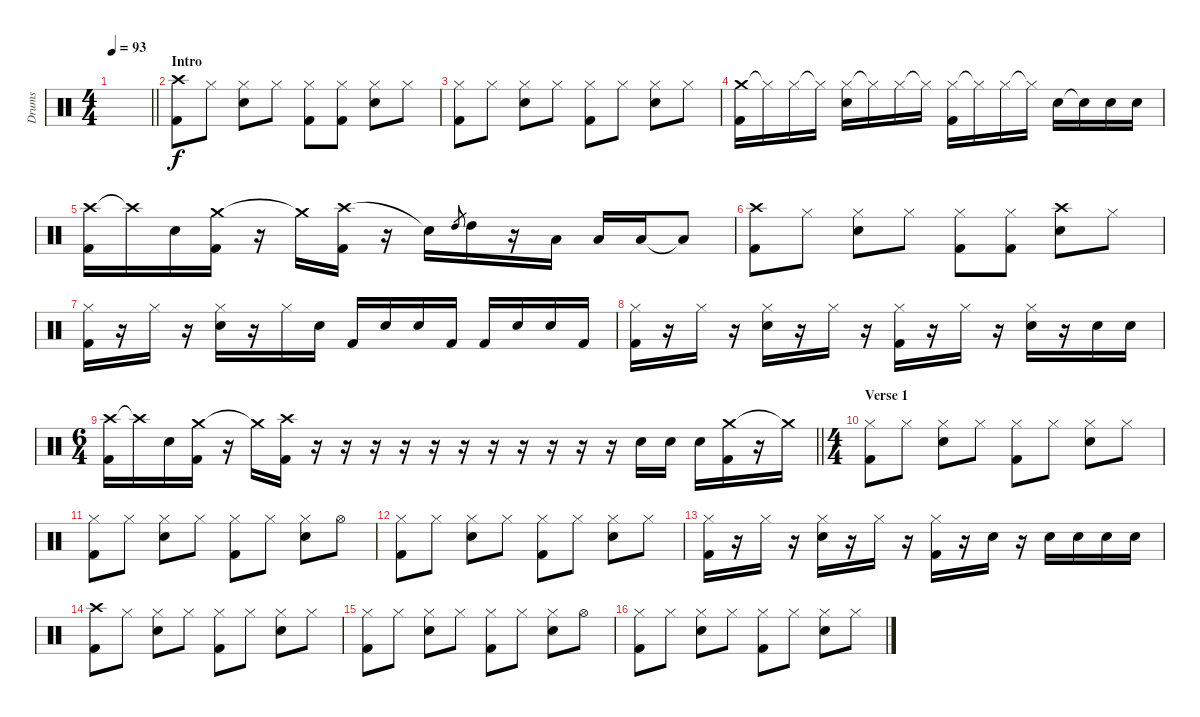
\track ("Drums" "Drums") {instrument percussion}
\staff {score}
\articulation defaults
\ts (4 4)
\tempo 93
\clef neutral
\barLineRight lightlight
\ks c
|
\section ("" "Intro")
("Crash high (hit)" "Kick (hit) 2").8 "Hi-Hat (closed)".8 ("Hi-Hat (closed)" "Snare (hit) 2").8 "Hi-Hat (closed)".8 ("Hi-Hat (closed)" "Kick (hit) 2").8 ("Hi-Hat (closed)" "Kick (hit) 2").8 ("Hi-Hat (closed)" "Snare (hit) 2").8 "Hi-Hat (closed)".8 |
("Hi-Hat (closed)" "Kick (hit) 2").8 "Hi-Hat (closed)".8 ("Hi-Hat (closed)" "Snare (hit) 2").8 "Hi-Hat (closed)".8 ("Hi-Hat (closed)" "Kick (hit) 2").8 "Hi-Hat (closed)".8 ("Hi-Hat (closed)" "Snare (hit) 2").8 "Hi-Hat (closed)".8 |
("Crash medium (hit)" "Kick (hit) 2").16 "Hi-Hat (closed)"{t}.16 "Hi-Hat (closed)".16 "Hi-Hat (closed)"{t}.16 ("Hi-Hat (closed)" "Snare (hit) 2").16 "Hi-Hat (closed)"{t}.16 "Hi-Hat (closed)".16 "Hi-Hat (closed)"{t}.16 ("Hi-Hat (closed)" "Kick (hit) 2").16 "Hi-Hat (closed)"{t}.16 "Hi-Hat (closed)".16 "Hi-Hat (closed)"{t}.16 "Snare (hit) 2".16 "Snare (hit) 2"{t}.16 "Snare (hit) 2".16 "Snare (hit) 2".16 |
("Crash high (hit)" "Kick (hit) 2").16 "Crash high (hit)"{t}.16 "Snare (hit) 2".16 ("Crash medium (hit)" "Kick (hit) 2").16 r.16 "Crash medium (hit)"{t}.16 ("Crash high (hit)" "Kick (hit) 2").16 r.16 "Snare (hit)"{t}.16 "High Tom (hit)".8{gr} "High Tom (hit)".16 r.16 "Low Tom (hit)".16 "Low Tom (hit)".16 "Low Tom (hit)".16 "Low Tom (hit)"{t}.8 |
("Crash high (hit)" "Kick (hit) 2").8 "Hi-Hat (closed)".8 ("Hi-Hat (closed)" "Snare (hit) 2").8 "Hi-Hat (closed)".8 ("Hi-Hat (closed)" "Kick (hit) 2").8 ("Hi-Hat (closed)" "Kick (hit) 2").8 ("Crash high (hit)" "Snare (hit) 2").8 "Hi-Hat (closed)".8 |
("Hi-Hat (closed)" "Kick (hit) 2").16 r.16 "Hi-Hat (closed)".16 r.16 ("Hi-Hat (closed)" "Snare (hit) 2").16 r.16 "Hi-Hat (closed)".16 "Snare (hit) 2".16 "Kick (hit) 2".16 "Snare (hit) 2".16 "Snare (hit) 2".16 "Kick (hit) 2".16 "Kick (hit) 2".16 "Snare (hit) 2".16 "Snare (hit) 2".16 "Kick (hit) 2".16 |
("Hi-Hat (closed)" "Kick (hit) 2").16 r.16 "Hi-Hat (closed)".16 r.16 ("Hi-Hat (closed)" "Snare (hit) 2").16 r.16 "Hi-Hat (closed)".16 r.16 ("Hi-Hat (closed)" "Kick (hit) 2").16 r.16 "Hi-Hat (closed)".16 r.16 ("Hi-Hat (closed)" "Snare (hit) 2").16 r.16 "Snare (hit) 2".16 "Snare (hit) 2".16 |
\ts (6 4)
\barLineRight lightlight
("Crash high (hit)" "Kick (hit) 2").16 "Crash high (hit)"{t}.16 "Snare (hit) 2".16 ("Crash medium (hit)" "Kick (hit) 2").16 r.16 "Crash medium (hit)"{t}.16 ("Crash high (hit)" "Kick (hit) 2").16 r.16 r.16 r.16 r.16 r.16 r.16 r.16 r.16 r.16 r.16 r.16 "Snare (hit) 2".16 "Snare (hit) 2".16 "Snare (hit) 2".16 ("Crash medium (hit)" "Kick (hit) 2").16 r.16 "Crash medium (hit)"{t}.16 |
\ts (4 4)
\section ("" "Verse 1")
("Hi-Hat (closed)" "Kick (hit) 2").8 "Hi-Hat (closed)".8 ("Hi-Hat (closed)" "Snare (hit) 2").8 "Hi-Hat (closed)".8 ("Hi-Hat (closed)" "Kick (hit) 2").8 "Hi-Hat (closed)".8 ("Hi-Hat (closed)" "Snare (hit) 2").8 "Hi-Hat (closed)".8 |
("Hi-Hat (closed)" "Kick (hit) 2").8 "Hi-Hat (closed)".8 ("Hi-Hat (closed)" "Snare (hit) 2").8 "Hi-Hat (closed)".8 ("Hi-Hat (closed)" "Kick (hit) 2").8 "Hi-Hat (closed)".8 ("Hi-Hat (closed)" "Snare (hit) 2").8 "Hi-Hat (open)".8 |
("Hi-Hat (closed)" "Kick (hit) 2").8 "Hi-Hat (closed)".8 ("Hi-Hat (closed)" "Snare (hit) 2").8 "Hi-Hat (closed)".8 ("Hi-Hat (closed)" "Kick (hit) 2").8 "Hi-Hat (closed)".8 ("Hi-Hat (closed)" "Snare (hit) 2").8 "Hi-Hat (closed)".8 |
("Hi-Hat (closed)" "Kick (hit) 2").16 r.16 "Hi-Hat (closed)".16 r.16 ("Hi-Hat (closed)" "Snare (hit) 2").16 r.16 "Hi-Hat (closed)".16 r.16 ("Hi-Hat (closed)" "Kick (hit) 2").16 r.16 "Snare (hit) 2".16 r.16 "Snare (hit) 2".16 "Snare (hit) 2".16 "Snare (hit) 2".16 "Snare (hit) 2".16 |
("Crash high (hit)" "Kick (hit) 2").8 "Hi-Hat (closed)".8 ("Hi-Hat (closed)" "Snare (hit) 2").8 "Hi-Hat (closed)".8 ("Hi-Hat (closed)" "Kick (hit) 2").8 "Hi-Hat (closed)".8 ("Hi-Hat (closed)" "Snare (hit) 2").8 "Hi-Hat (closed)".8 |
("Hi-Hat (closed)" "Kick (hit) 2").8 "Hi-Hat (closed)".8 ("Hi-Hat (closed)" "Snare (hit) 2").8 "Hi-Hat (closed)".8 ("Hi-Hat (closed)" "Kick (hit) 2").8 "Hi-Hat (closed)".8 ("Hi-Hat (closed)" "Snare (hit) 2").8 "Hi-Hat (open)".8 |
("Hi-Hat (closed)" "Kick (hit) 2").8 "Hi-Hat (closed)".8 ("Hi-Hat (closed)" "Snare (hit) 2").8 "Hi-Hat (closed)".8 ("Hi-Hat (closed)" "Kick (hit) 2").8 "Hi-Hat (closed)".8 ("Hi-Hat (closed)" "Snare (hit) 2").8 "Hi-Hat (closed)".8
